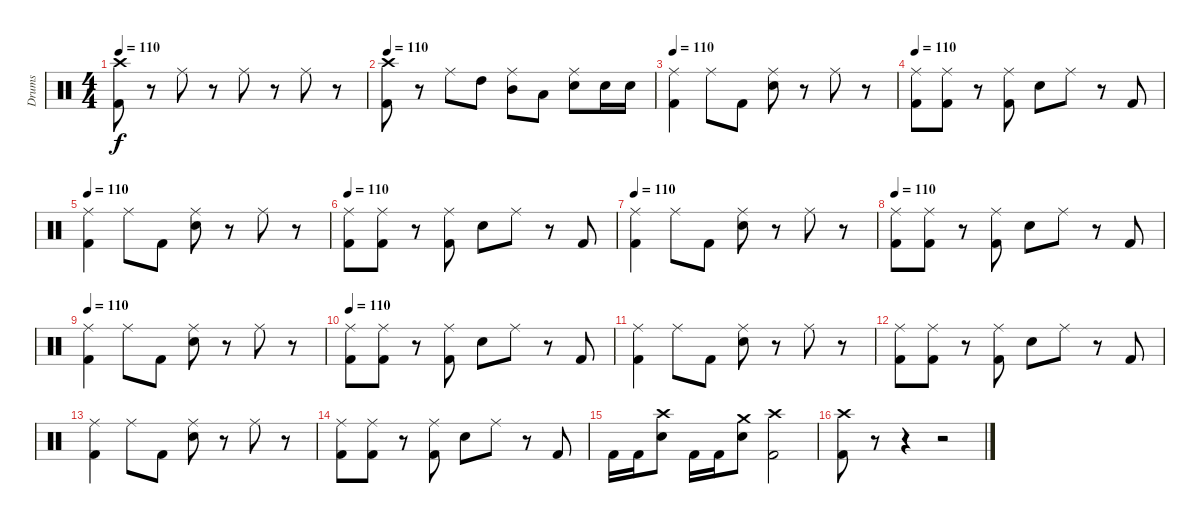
\track ("Drums" "Drums") {instrument percussion}
\staff {score}
\articulation defaults
\ts (4 4)
\tempo 110
\clef neutral
\ks c
("Kick (hit) 2" "Crash high (hit)").8{dy f} r.8 "Ride (middle)".8 r.8 "Ride (middle)".8 r.8 "Ride (middle)".8 r.8 |
\tempo 110
("Kick (hit) 2" "Crash high (hit)").8 r.8 "Ride (middle)".8 "High Tom (hit)".8 ("Ride (middle)" "Mid Tom (hit)").8 "Low Tom (hit)".8 ("Ride (middle)" "Electric Snare (hit)").8 "Electric Snare (hit)".16 "Electric Snare (hit)".16 |
\tempo 110
("Ride (middle)" "Kick (hit) 2").4 "Ride (middle)".8 "Kick (hit) 2".8 ("Ride (middle)" "Electric Snare (hit)").8 r.8 "Ride (middle)".8 r.8 |
\tempo 110
("Ride (middle)" "Kick (hit) 2").8 ("Ride (middle)" "Kick (hit) 2").8 r.8 ("Ride (middle)" "Kick (hit) 2").8 "Electric Snare (hit)".8 "Ride (middle)".8 r.8 "Kick (hit) 2".8 |
\tempo 110
("Ride (middle)" "Kick (hit) 2").4 "Ride (middle)".8 "Kick (hit) 2".8 ("Ride (middle)" "Electric Snare (hit)").8 r.8 "Ride (middle)".8 r.8 |
\tempo 110
("Ride (middle)" "Kick (hit) 2").8 ("Ride (middle)" "Kick (hit) 2").8 r.8 ("Ride (middle)" "Kick (hit) 2").8 "Electric Snare (hit)".8 "Ride (middle)".8 r.8 "Kick (hit) 2".8 |
\tempo 110
("Ride (middle)" "Kick (hit) 2").4 "Ride (middle)".8 "Kick (hit) 2".8 ("Ride (middle)" "Electric Snare (hit)").8 r.8 "Ride (middle)".8 r.8 |
\tempo 110
("Ride (middle)" "Kick (hit) 2").8 ("Ride (middle)" "Kick (hit) 2").8 r.8 ("Ride (middle)" "Kick (hit) 2").8 "Electric Snare (hit)".8 "Ride (middle)".8 r.8 "Kick (hit) 2".8 |
\tempo 110
("Ride (middle)" "Kick (hit) 2").4 "Ride (middle)".8 "Kick (hit) 2".8 ("Ride (middle)" "Electric Snare (hit)").8 r.8 "Ride (middle)".8 r.8 |
\tempo 110
("Ride (middle)" "Kick (hit) 2").8 ("Ride (middle)" "Kick (hit) 2").8 r.8 ("Ride (middle)" "Kick (hit) 2").8 "Electric Snare (hit)".8 "Ride (middle)".8 r.8 "Kick (hit) 2".8 |
("Ride (middle)" "Kick (hit) 2").4 "Ride (middle)".8 "Kick (hit) 2".8 ("Ride (middle)" "Electric Snare (hit)").8 r.8 "Ride (middle)".8 r.8 |
("Ride (middle)" "Kick (hit) 2").8 ("Ride (middle)" "Kick (hit) 2").8 r.8 ("Ride (middle)" "Kick (hit) 2").8 "Electric Snare (hit)".8 "Ride (middle)".8 r.8 "Kick (hit) 2".8 |
("Ride (middle)" "Kick (hit) 2").4 "Ride (middle)".8 "Kick (hit) 2".8 ("Ride (middle)" "Electric Snare (hit)").8 r.8 "Ride (middle)".8 r.8 |
("Ride (middle)" "Kick (hit) 2").8 ("Ride (middle)" "Kick (hit) 2").8 r.8 ("Ride (middle)" "Kick (hit) 2").8 "Electric Snare (hit)".8 "Ride (middle)".8 r.8 "Kick (hit) 2".8 |
"Kick (hit) 2".16 "Kick (hit) 2".16 ("Crash high (hit)" "Electric Snare (hit)").8 "Kick (hit) 2".16 "Kick (hit) 2".16 ("Crash medium (hit)" "Electric Snare (hit)").8 ("Crash high (hit)" "Kick (hit) 2").2 |
("Kick (hit) 2" "Crash high (hit)").8 r.8 r.4 r.2
